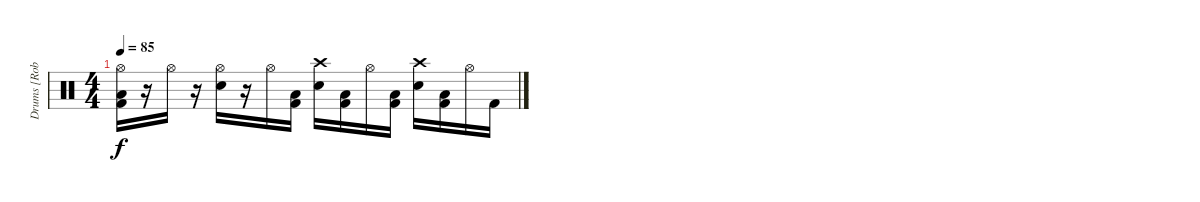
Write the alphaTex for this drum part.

\track ("Drums [Rob Bourdon]" "Drums [Rob") {instrument percussion}
\staff {score}
\articulation defaults
\ts (4 4)
\tempo 85
\clef neutral
\ks c
("Hi-Hat (open)" "Low Floor Tom (hit)" "Kick (hit) 2").16{dy f} r.16 "Hi-Hat (open)".16 r.16 ("Hi-Hat (open)" "Snare (hit) 2").16 r.16 "Hi-Hat (open)".16 ("Low Floor Tom (hit)" "Kick (hit) 2").16 ("Crash high (hit)" "Snare (hit) 2").16 ("Low Floor Tom (hit)" "Kick (hit) 2").16 "Hi-Hat (open)".16 ("Low Floor Tom (hit)" "Kick (hit) 2").16 ("Crash high (hit)" "Snare (hit) 2").16 ("Low Floor Tom (hit)" "Kick (hit) 2").16 "Hi-Hat (open)".16 "Kick (hit) 2".16
